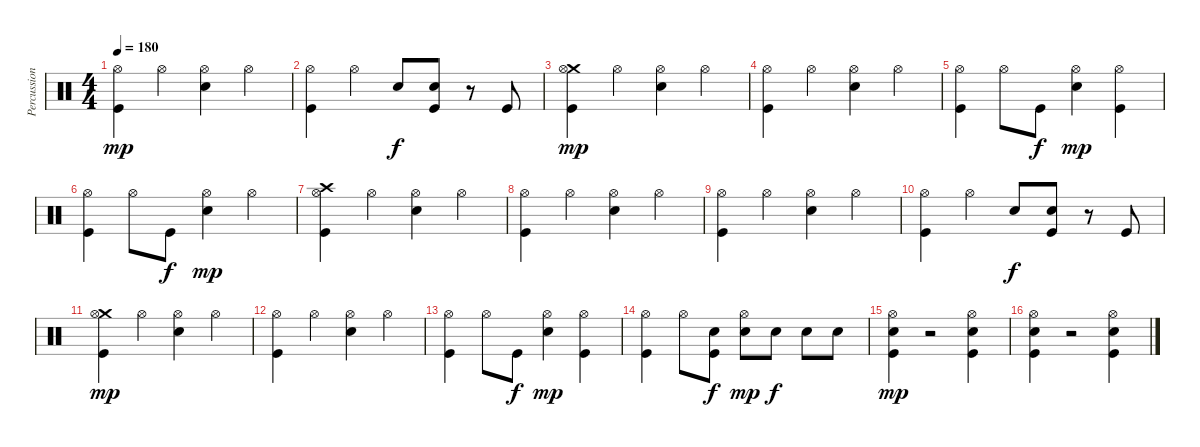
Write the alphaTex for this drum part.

\track ("Percussion" "Percussion") {instrument percussion}
\staff {score}
\articulation defaults
\ts (4 4)
\tempo 180
\clef neutral
\ks c
("Hi-Hat (open)" "Kick (hit)").4{dy mp} "Hi-Hat (open)".4 ("Hi-Hat (open)" "Snare (hit) 2").4 "Hi-Hat (open)".4 |
("Hi-Hat (open)" "Kick (hit)").4 "Hi-Hat (open)".4 "Snare (hit) 2".8{dy f} ("Snare (hit) 2" "Kick (hit)").8 r.8 "Kick (hit)".8 |
("Crash medium (hit)" "Hi-Hat (open)" "Kick (hit)").4{dy mp} "Hi-Hat (open)".4 ("Hi-Hat (open)" "Snare (hit) 2").4 "Hi-Hat (open)".4 |
("Hi-Hat (open)" "Kick (hit)").4 "Hi-Hat (open)".4 ("Hi-Hat (open)" "Snare (hit) 2").4 "Hi-Hat (open)".4 |
("Hi-Hat (open)" "Kick (hit)").4 "Hi-Hat (open)".8 "Kick (hit)".8{dy f} ("Hi-Hat (open)" "Snare (hit) 2").4{dy mp} ("Hi-Hat (open)" "Kick (hit)").4 |
("Hi-Hat (open)" "Kick (hit)").4 "Hi-Hat (open)".8 "Kick (hit)".8{dy f} ("Hi-Hat (open)" "Snare (hit) 2").4{dy mp} "Hi-Hat (open)".4 |
("Crash high (hit)" "Hi-Hat (open)" "Kick (hit)").4 "Hi-Hat (open)".4 ("Hi-Hat (open)" "Snare (hit) 2").4 "Hi-Hat (open)".4 |
("Hi-Hat (open)" "Kick (hit)").4 "Hi-Hat (open)".4 ("Hi-Hat (open)" "Snare (hit) 2").4 "Hi-Hat (open)".4 |
("Hi-Hat (open)" "Kick (hit)").4 "Hi-Hat (open)".4 ("Hi-Hat (open)" "Snare (hit) 2").4 "Hi-Hat (open)".4 |
("Hi-Hat (open)" "Kick (hit)").4 "Hi-Hat (open)".4 "Snare (hit) 2".8{dy f} ("Snare (hit) 2" "Kick (hit)").8 r.8 "Kick (hit)".8 |
("Crash medium (hit)" "Hi-Hat (open)" "Kick (hit)").4{dy mp} "Hi-Hat (open)".4 ("Hi-Hat (open)" "Snare (hit) 2").4 "Hi-Hat (open)".4 |
("Hi-Hat (open)" "Kick (hit)").4 "Hi-Hat (open)".4 ("Hi-Hat (open)" "Snare (hit) 2").4 "Hi-Hat (open)".4 |
("Hi-Hat (open)" "Kick (hit)").4 "Hi-Hat (open)".8 "Kick (hit)".8{dy f} ("Hi-Hat (open)" "Snare (hit) 2").4{dy mp} ("Hi-Hat (open)" "Kick (hit)").4 |
("Hi-Hat (open)" "Kick (hit)").4 "Hi-Hat (open)".8 ("Snare (hit) 2" "Kick (hit)").8{dy f} ("Hi-Hat (open)" "Snare (hit) 2").8{dy mp} "Snare (hit) 2".8{dy f} "Snare (hit) 2".8 "Snare (hit) 2".8 |
("Hi-Hat (open)" "Snare (hit) 2" "Kick (hit)").4{dy mp} r.2 ("Hi-Hat (open)" "Snare (hit) 2" "Kick (hit)").4 |
("Hi-Hat (open)" "Snare (hit) 2" "Kick (hit)").4 r.2 ("Hi-Hat (open)" "Snare (hit) 2" "Kick (hit)").4
